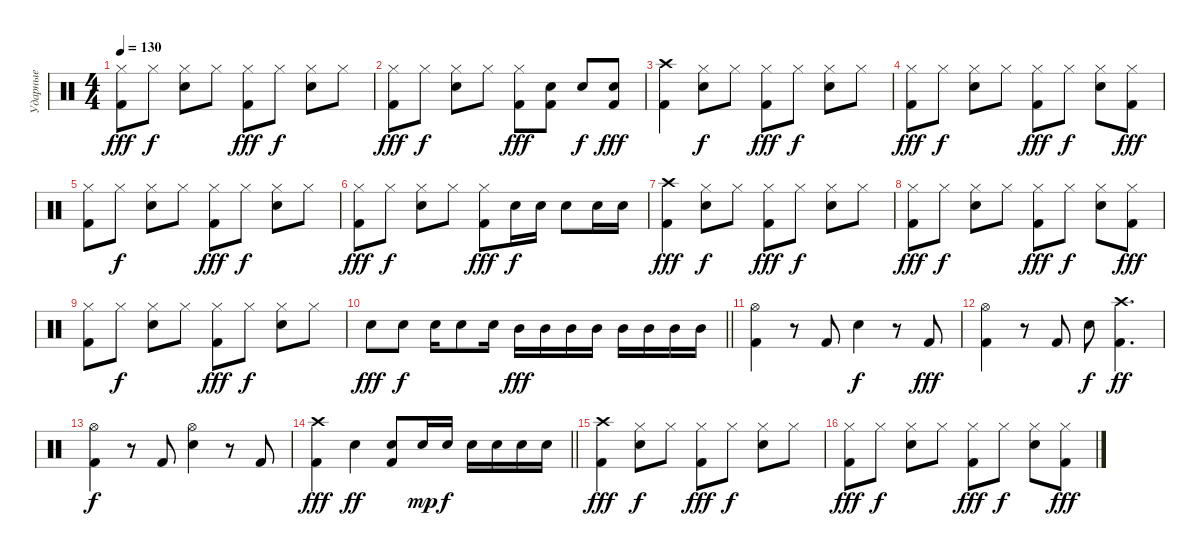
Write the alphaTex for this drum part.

\track ("Ударные" "Ударные") {instrument percussion}
\staff {score}
\articulation defaults
\ts (4 4)
\tempo 130
\clef neutral
\ks c
("Kick (hit) 2" "Hi-Hat (closed)").8{dy fff} "Hi-Hat (closed)".8{dy f} ("Snare (hit) 2" "Hi-Hat (closed)").8 "Hi-Hat (closed)".8 ("Kick (hit) 2" "Hi-Hat (closed)").8{dy fff} "Hi-Hat (closed)".8{dy f} ("Snare (hit) 2" "Hi-Hat (closed)").8 "Hi-Hat (closed)".8 |
("Kick (hit) 2" "Hi-Hat (closed)").8{dy fff} "Hi-Hat (closed)".8{dy f} ("Snare (hit) 2" "Hi-Hat (closed)").8 "Hi-Hat (closed)".8 ("Kick (hit) 2" "Hi-Hat (closed)").8{dy fff} ("Kick (hit) 2" "Electric Snare (hit)").8 "Snare (hit) 2".8{dy f} ("Kick (hit) 2" "Electric Snare (hit)").8{dy fff} |
("Kick (hit) 2" "Crash high (hit)").4 ("Snare (hit) 2" "Hi-Hat (closed)").8{dy f} "Hi-Hat (closed)".8 ("Kick (hit) 2" "Hi-Hat (closed)").8{dy fff} "Hi-Hat (closed)".8{dy f} ("Snare (hit) 2" "Hi-Hat (closed)").8 "Hi-Hat (closed)".8 |
("Kick (hit) 2" "Hi-Hat (closed)").8{dy fff} "Hi-Hat (closed)".8{dy f} ("Snare (hit) 2" "Hi-Hat (closed)").8 "Hi-Hat (closed)".8 ("Kick (hit) 2" "Hi-Hat (closed)").8{dy fff} "Hi-Hat (closed)".8{dy f} ("Snare (hit) 2" "Hi-Hat (closed)").8 ("Kick (hit) 2" "Hi-Hat (closed)").8{dy fff} |
("Kick (hit) 2" "Hi-Hat (closed)").8 "Hi-Hat (closed)".8{dy f} ("Snare (hit) 2" "Hi-Hat (closed)").8 "Hi-Hat (closed)".8 ("Kick (hit) 2" "Hi-Hat (closed)").8{dy fff} "Hi-Hat (closed)".8{dy f} ("Snare (hit) 2" "Hi-Hat (closed)").8 "Hi-Hat (closed)".8 |
("Kick (hit) 2" "Hi-Hat (closed)").8{dy fff} "Hi-Hat (closed)".8{dy f} ("Snare (hit) 2" "Hi-Hat (closed)").8 "Hi-Hat (closed)".8 ("Kick (hit) 2" "Hi-Hat (closed)").8{dy fff} "Snare (hit) 2".16{dy f} "Snare (hit) 2".16 "Snare (hit) 2".8 "Snare (hit) 2".16 "Snare (hit) 2".16 |
("Kick (hit) 2" "Crash high (hit)").4{dy fff} ("Snare (hit) 2" "Hi-Hat (closed)").8{dy f} "Hi-Hat (closed)".8 ("Kick (hit) 2" "Hi-Hat (closed)").8{dy fff} "Hi-Hat (closed)".8{dy f} ("Snare (hit) 2" "Hi-Hat (closed)").8 "Hi-Hat (closed)".8 |
("Kick (hit) 2" "Hi-Hat (closed)").8{dy fff} "Hi-Hat (closed)".8{dy f} ("Snare (hit) 2" "Hi-Hat (closed)").8 "Hi-Hat (closed)".8 ("Kick (hit) 2" "Hi-Hat (closed)").8{dy fff} "Hi-Hat (closed)".8{dy f} ("Snare (hit) 2" "Hi-Hat (closed)").8 ("Kick (hit) 2" "Hi-Hat (closed)").8{dy fff} |
("Kick (hit) 2" "Hi-Hat (closed)").8 "Hi-Hat (closed)".8{dy f} ("Snare (hit) 2" "Hi-Hat (closed)").8 "Hi-Hat (closed)".8 ("Kick (hit) 2" "Hi-Hat (closed)").8{dy fff} "Hi-Hat (closed)".8{dy f} ("Snare (hit) 2" "Hi-Hat (closed)").8 "Hi-Hat (closed)".8 |
\barLineRight lightlight "Electric Snare (hit)".8{dy fff} "Electric Snare (hit)".8{dy f} "Electric Snare (hit)".16 "Electric Snare (hit)".8 "Electric Snare (hit)".16 "Mid Tom (hit)".16{dy fff} "Mid Tom (hit)".16 "Mid Tom (hit)".16 "Mid Tom (hit)".16 "Mid Tom (hit)".16 "Mid Tom (hit)".16 "Mid Tom (hit)".16 "Mid Tom (hit)".16
|
("Kick (hit) 2" "Hi-Hat (open)").4 r.8 "Kick (hit) 2".8 "Snare (hit) 2".4{dy f} r.8 "Kick (hit) 2".8{dy fff} |
("Kick (hit) 2" "Hi-Hat (open)").4 r.8 "Kick (hit) 2".8 "Snare (hit) 2".8{dy f} ("Kick (hit) 2" "Crash high (hit)").4{d dy ff} |
("Kick (hit) 2" "Hi-Hat (open)").4{dy f} r.8 "Kick (hit) 2".8 ("Snare (hit) 2" "Hi-Hat (open)").4 r.8 "Kick (hit) 2".8 |
\barLineRight lightlight
("Kick (hit) 2" "Crash high (hit)").4{dy fff} "Snare (hit) 2".4{dy ff} ("Kick (hit) 2" "Snare (hit) 2").8 "Snare (hit) 2".16{dy mp} "Snare (hit) 2".16{dy f} "Snare (hit) 2".16 "Snare (hit) 2".16 "Snare (hit) 2".16 "Snare (hit) 2".16 |
("Kick (hit) 2" "Crash high (hit)").4{dy fff} ("Snare (hit) 2" "Hi-Hat (closed)").8{dy f} "Hi-Hat (closed)".8 ("Kick (hit) 2" "Hi-Hat (closed)").8{dy fff} "Hi-Hat (closed)".8{dy f} ("Snare (hit) 2" "Hi-Hat (closed)").8 "Hi-Hat (closed)".8 |
("Kick (hit) 2" "Hi-Hat (closed)").8{dy fff} "Hi-Hat (closed)".8{dy f} ("Snare (hit) 2" "Hi-Hat (closed)").8 "Hi-Hat (closed)".8 ("Kick (hit) 2" "Hi-Hat (closed)").8{dy fff} "Hi-Hat (closed)".8{dy f} ("Snare (hit) 2" "Hi-Hat (closed)").8 ("Kick (hit) 2" "Hi-Hat (closed)").8{dy fff}
